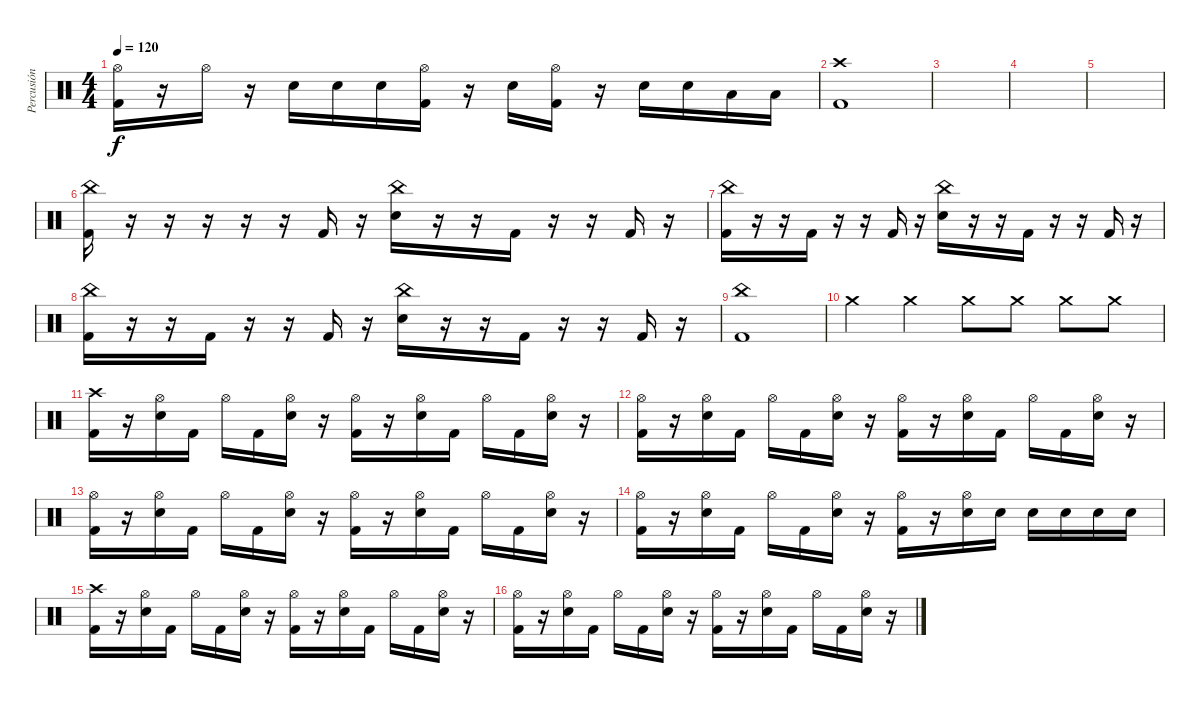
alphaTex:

\track ("Percusión" "Percusión") {instrument percussion}
\staff {score}
\articulation defaults
\ts (4 4)
\tempo 120
\clef neutral
\ks c
("Hi-Hat (open)" "Kick (hit) 2").16{dy f} r.16 "Hi-Hat (open)".16 r.16 "Electric Snare (hit)".16 "Electric Snare (hit)".16 "Electric Snare (hit)".16 ("Hi-Hat (open)" "Kick (hit) 2").16 r.16 "Electric Snare (hit)".16 ("Hi-Hat (open)" "Kick (hit) 2").16 r.16 "Electric Snare (hit)".16 "Electric Snare (hit)".16 "Low Tom (hit)".16 "Low Tom (hit)".16 |
("Crash high (hit)" "Kick (hit) 2").1 |
|
|
|
("China (hit)" "Kick (hit) 2").16 r.16 r.16 r.16 r.16 r.16 "Kick (hit) 2".16 r.16 ("China (hit)" "Electric Snare (hit)").16 r.16 r.16 "Kick (hit) 2".16 r.16 r.16 "Kick (hit) 2".16 r.16 |
("China (hit)" "Kick (hit) 2").16 r.16 r.16 "Kick (hit) 2".16 r.16 r.16 "Kick (hit) 2".16 r.16 ("China (hit)" "Electric Snare (hit)").16 r.16 r.16 "Kick (hit) 2".16 r.16 r.16 "Kick (hit) 2".16 r.16 |
("China (hit)" "Kick (hit) 2").16 r.16 r.16 "Kick (hit) 2".16 r.16 r.16 "Kick (hit) 2".16 r.16 ("China (hit)" "Electric Snare (hit)").16 r.16 r.16 "Kick (hit) 2".16 r.16 r.16 "Kick (hit) 2".16 r.16 |
("China (hit)" "Kick (hit) 2").1 |
"Crash medium (hit)".4 "Crash medium (hit)".4 "Crash medium (hit)".8 "Crash medium (hit)".8 "Crash medium (hit)".8 "Crash medium (hit)".8 |
("Crash high (hit)" "Kick (hit) 2").16 r.16 ("Hi-Hat (open)" "Electric Snare (hit)").16 "Kick (hit) 2".16 "Hi-Hat (open)".16 "Kick (hit) 2".16 ("Hi-Hat (open)" "Electric Snare (hit)").16 r.16 ("Hi-Hat (open)" "Kick (hit) 2").16 r.16 ("Hi-Hat (open)" "Electric Snare (hit)").16 "Kick (hit) 2".16 "Hi-Hat (open)".16 "Kick (hit) 2".16 ("Hi-Hat (open)" "Electric Snare (hit)").16 r.16 |
("Hi-Hat (open)" "Kick (hit) 2").16 r.16 ("Hi-Hat (open)" "Electric Snare (hit)").16 "Kick (hit) 2".16 "Hi-Hat (open)".16 "Kick (hit) 2".16 ("Hi-Hat (open)" "Electric Snare (hit)").16 r.16 ("Hi-Hat (open)" "Kick (hit) 2").16 r.16 ("Hi-Hat (open)" "Electric Snare (hit)").16 "Kick (hit) 2".16 "Hi-Hat (open)".16 "Kick (hit) 2".16 ("Hi-Hat (open)" "Electric Snare (hit)").16 r.16 |
("Hi-Hat (open)" "Kick (hit) 2").16 r.16 ("Hi-Hat (open)" "Electric Snare (hit)").16 "Kick (hit) 2".16 "Hi-Hat (open)".16 "Kick (hit) 2".16 ("Hi-Hat (open)" "Electric Snare (hit)").16 r.16 ("Hi-Hat (open)" "Kick (hit) 2").16 r.16 ("Hi-Hat (open)" "Electric Snare (hit)").16 "Kick (hit) 2".16 "Hi-Hat (open)".16 "Kick (hit) 2".16 ("Hi-Hat (open)" "Electric Snare (hit)").16 r.16 |
("Hi-Hat (open)" "Kick (hit) 2").16 r.16 ("Hi-Hat (open)" "Electric Snare (hit)").16 "Kick (hit) 2".16 "Hi-Hat (open)".16 "Kick (hit) 2".16 ("Hi-Hat (open)" "Electric Snare (hit)").16 r.16 ("Hi-Hat (open)" "Kick (hit) 2").16 r.16 ("Hi-Hat (open)" "Electric Snare (hit)").16 "Electric Snare (hit)".16 "Electric Snare (hit)".16 "Electric Snare (hit)".16 "Electric Snare (hit)".16 "Electric Snare (hit)".16 |
("Crash high (hit)" "Kick (hit) 2").16 r.16 ("Hi-Hat (open)" "Electric Snare (hit)").16 "Kick (hit) 2".16 "Hi-Hat (open)".16 "Kick (hit) 2".16 ("Hi-Hat (open)" "Electric Snare (hit)").16 r.16 ("Hi-Hat (open)" "Kick (hit) 2").16 r.16 ("Hi-Hat (open)" "Electric Snare (hit)").16 "Kick (hit) 2".16 "Hi-Hat (open)".16 "Kick (hit) 2".16 ("Hi-Hat (open)" "Electric Snare (hit)").16 r.16 |
("Hi-Hat (open)" "Kick (hit) 2").16 r.16 ("Hi-Hat (open)" "Electric Snare (hit)").16 "Kick (hit) 2".16 "Hi-Hat (open)".16 "Kick (hit) 2".16 ("Hi-Hat (open)" "Electric Snare (hit)").16 r.16 ("Hi-Hat (open)" "Kick (hit) 2").16 r.16 ("Hi-Hat (open)" "Electric Snare (hit)").16 "Kick (hit) 2".16 "Hi-Hat (open)".16 "Kick (hit) 2".16 ("Hi-Hat (open)" "Electric Snare (hit)").16 r.16
